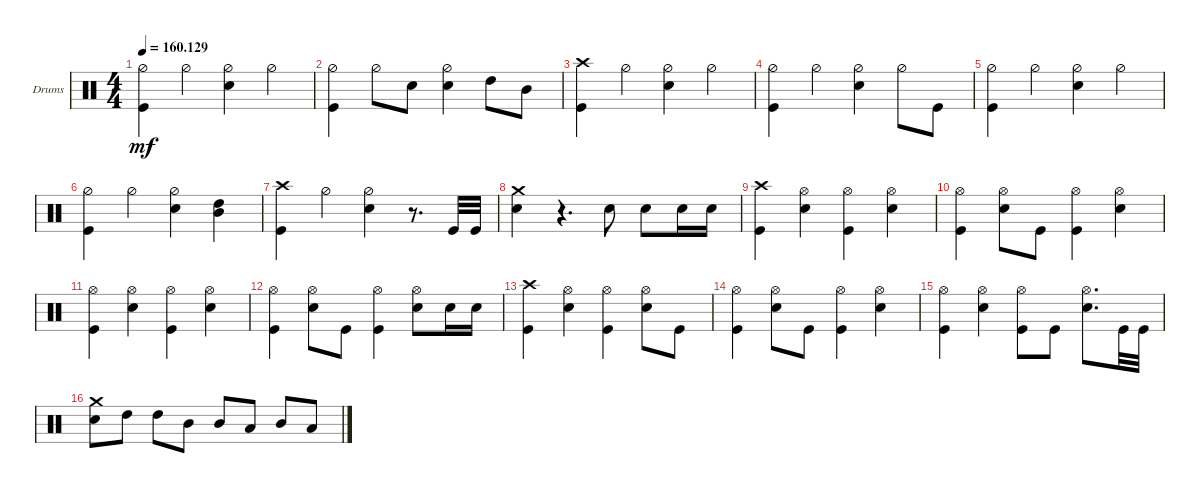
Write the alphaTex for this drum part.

\defaultSystemsLayout 4
\bracketExtendMode groupsimilarinstruments
\firstSystemTrackNameOrientation horizontal
\otherSystemsTrackNameOrientation horizontal
\track ("Drumkit" "Drums") {instrument percussion}
\staff {score}
\articulation defaults
\ts (4 4)
\tempo
160.129
\accidentals auto
\clef neutral
\ottava regular
\simile none
\ks c
("Hi-Hat (half)" "Kick (hit)").4{dy mf} "Hi-Hat (half)".4 ("Hi-Hat (half)" "Snare (hit) 2").4 "Hi-Hat (half)".4 |
("Hi-Hat (half)" "Kick (hit)").4 "Hi-Hat (half)".8 "Snare (hit) 2".8 ("Hi-Hat (half)" "Snare (hit) 2").4 "High Tom (hit)".8 "Mid Tom (hit)".8 |
("Kick (hit)" "Crash high (hit)").4 "Hi-Hat (half)".4 ("Hi-Hat (half)" "Snare (hit) 2").4 "Hi-Hat (half)".4 |
("Hi-Hat (half)" "Kick (hit)").4 "Hi-Hat (half)".4 ("Hi-Hat (half)" "Snare (hit) 2").4 "Hi-Hat (half)".8 "Kick (hit)".8 |
("Hi-Hat (half)" "Kick (hit)").4 "Hi-Hat (half)".4 ("Hi-Hat (half)" "Snare (hit) 2").4 "Hi-Hat (half)".4 |
("Hi-Hat (half)" "Kick (hit)").4 "Hi-Hat (half)".4 ("Hi-Hat (half)" "Snare (hit) 2").4 ("High Tom (hit)" "Mid Tom (hit)").4 |
("Kick (hit)" "Crash high (hit)").4 "Hi-Hat (half)".4 ("Hi-Hat (half)" "Snare (hit) 2").4 r.8{d} "Kick (hit)".32 "Kick (hit)".32 |
("Snare (hit) 2" "Crash medium (hit)").4 r.4{d} "Snare (hit) 2".8 "Snare (hit) 2".8 "Snare (hit) 2".16 "Snare (hit) 2".16 |
("Kick (hit)" "Crash high (hit)").4 ("Hi-Hat (open)" "Snare (hit) 2").4 ("Hi-Hat (open)" "Kick (hit)").4 ("Snare (hit) 2" "Hi-Hat (open)").4 |
("Kick (hit)" "Hi-Hat (open)").4 ("Hi-Hat (open)" "Snare (hit) 2").8 "Kick (hit)".8 ("Kick (hit)" "Hi-Hat (open)").4 ("Snare (hit) 2" "Hi-Hat (open)").4 |
("Kick (hit)" "Hi-Hat (open)").4 ("Snare (hit) 2" "Hi-Hat (open)").4 ("Kick (hit)" "Hi-Hat (open)").4 ("Snare (hit) 2" "Hi-Hat (open)").4 |
("Kick (hit)" "Hi-Hat (open)").4 ("Hi-Hat (open)" "Snare (hit) 2").8 "Kick (hit)".8 ("Kick (hit)" "Hi-Hat (open)").4 ("Snare (hit) 2" "Hi-Hat (open)").8 "Snare (hit) 2".16 "Snare (hit) 2".16 |
("Kick (hit)" "Crash high (hit)").4 ("Hi-Hat (open)" "Snare (hit) 2").4 ("Hi-Hat (open)" "Kick (hit)").4 ("Snare (hit) 2" "Hi-Hat (open)").8 "Kick (hit)".8 |
("Kick (hit)" "Hi-Hat (open)").4 ("Snare (hit) 2" "Hi-Hat (open)").8 "Kick (hit)".8 ("Kick (hit)" "Hi-Hat (open)").4 ("Snare (hit) 2" "Hi-Hat (open)").4 |
("Kick (hit)" "Hi-Hat (open)").4 ("Snare (hit) 2" "Hi-Hat (open)").4 ("Kick (hit)" "Hi-Hat (open)").8 "Kick (hit)".8 ("Hi-Hat (open)" "Snare (hit) 2").8{d} "Kick (hit)".32 "Kick (hit)".32 |
("Snare (hit) 2" "Crash medium (hit)").8 "High Tom (hit)".8 "High Tom (hit)".8 "Mid Tom (hit)".8 "Mid Tom (hit)".8 "Low Tom (hit)".8 "Mid Tom (hit)".8 "Low Tom (hit)".8
